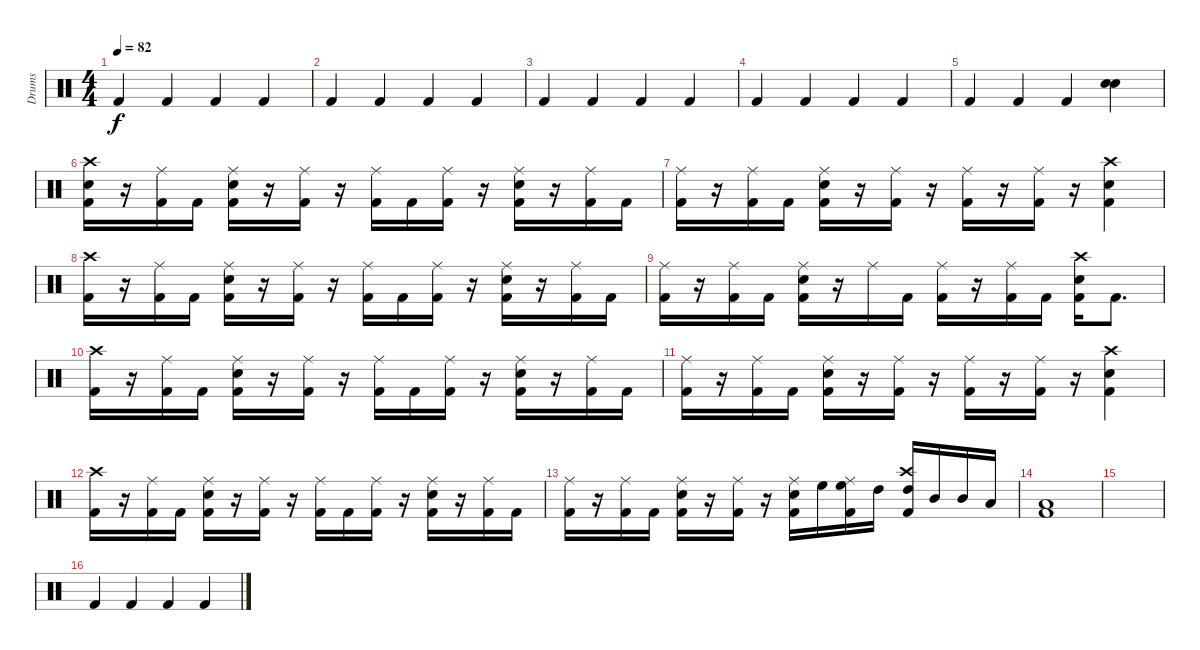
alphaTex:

\track ("Drums" "Drums") {instrument percussion}
\staff {score}
\articulation defaults
\ts (4 4)
\tempo 82
\clef neutral
\ks c "Kick (hit) 2".4{dy f} "Kick (hit) 2".4 "Kick (hit) 2".4 "Kick (hit) 2".4
|
"Kick (hit) 2".4 "Kick (hit) 2".4 "Kick (hit) 2".4 "Kick (hit) 2".4 |
"Kick (hit) 2".4 "Kick (hit) 2".4 "Kick (hit) 2".4 "Kick (hit) 2".4 |
"Kick (hit) 2".4 "Kick (hit) 2".4 "Kick (hit) 2".4 "Kick (hit) 2".4 |
"Kick (hit) 2".4 "Kick (hit) 2".4 "Kick (hit) 2".4 ("Snare (hit) 2" "Electric Snare (hit)").4 |
("Crash high (hit)" "Electric Snare (hit)" "Kick (hit) 2").16 r.16 ("Ride (middle)" "Kick (hit) 2").16 "Kick (hit) 2".16 ("Ride (middle)" "Electric Snare (hit)" "Kick (hit) 2").16 r.16 ("Ride (middle)" "Kick (hit) 2").16 r.16 ("Ride (middle)" "Kick (hit) 2").16 "Kick (hit) 2".16 ("Ride (middle)" "Kick (hit) 2").16 r.16 ("Ride (middle)" "Electric Snare (hit)" "Kick (hit) 2").16 r.16 ("Ride (middle)" "Kick (hit) 2").16 "Kick (hit) 2".16 |
("Ride (middle)" "Kick (hit) 2").16 r.16 ("Ride (middle)" "Kick (hit) 2").16 "Kick (hit) 2".16 ("Ride (middle)" "Electric Snare (hit)" "Kick (hit) 2").16 r.16 ("Ride (middle)" "Kick (hit) 2").16 r.16 ("Ride (middle)" "Kick (hit) 2").16 r.16 ("Ride (middle)" "Kick (hit) 2").16 r.16 ("Crash high (hit)" "Electric Snare (hit)" "Kick (hit) 2").4 |
("Crash high (hit)" "Kick (hit) 2").16 r.16 ("Ride (middle)" "Kick (hit) 2").16 "Kick (hit) 2".16 ("Ride (middle)" "Electric Snare (hit)" "Kick (hit) 2").16 r.16 ("Ride (middle)" "Kick (hit) 2").16 r.16 ("Ride (middle)" "Kick (hit) 2").16 "Kick (hit) 2".16 ("Ride (middle)" "Kick (hit) 2").16 r.16 ("Ride (middle)" "Electric Snare (hit)" "Kick (hit) 2").16 r.16 ("Ride (middle)" "Kick (hit) 2").16 "Kick (hit) 2".16 |
("Ride (middle)" "Kick (hit) 2").16 r.16 ("Ride (middle)" "Kick (hit) 2").16 "Kick (hit) 2".16 ("Ride (middle)" "Electric Snare (hit)" "Kick (hit) 2").16 r.16 "Ride (middle)".16 "Kick (hit) 2".16 ("Ride (middle)" "Kick (hit) 2").16 r.16 ("Ride (middle)" "Kick (hit) 2").16 "Kick (hit) 2".16 ("Crash high (hit)" "Electric Snare (hit)" "Kick (hit) 2").16 "Kick (hit) 2".8{d} |
("Crash high (hit)" "Kick (hit) 2").16 r.16 ("Ride (middle)" "Kick (hit) 2").16 "Kick (hit) 2".16 ("Ride (middle)" "Electric Snare (hit)" "Kick (hit) 2").16 r.16 ("Ride (middle)" "Kick (hit) 2").16 r.16 ("Ride (middle)" "Kick (hit) 2").16 "Kick (hit) 2".16 ("Ride (middle)" "Kick (hit) 2").16 r.16 ("Ride (middle)" "Electric Snare (hit)" "Kick (hit) 2").16 r.16 ("Ride (middle)" "Kick (hit) 2").16 "Kick (hit) 2".16 |
("Ride (middle)" "Kick (hit) 2").16 r.16 ("Ride (middle)" "Kick (hit) 2").16 "Kick (hit) 2".16 ("Ride (middle)" "Electric Snare (hit)" "Kick (hit) 2").16 r.16 ("Ride (middle)" "Kick (hit) 2").16 r.16 ("Ride (middle)" "Kick (hit) 2").16 r.16 ("Ride (middle)" "Kick (hit) 2").16 r.16 ("Crash high (hit)" "Electric Snare (hit)" "Kick (hit) 2").4 |
("Crash high (hit)" "Kick (hit) 2").16 r.16 ("Ride (middle)" "Kick (hit) 2").16 "Kick (hit) 2".16 ("Ride (middle)" "Electric Snare (hit)" "Kick (hit) 2").16 r.16 ("Ride (middle)" "Kick (hit) 2").16 r.16 ("Ride (middle)" "Kick (hit) 2").16 "Kick (hit) 2".16 ("Ride (middle)" "Kick (hit) 2").16 r.16 ("Ride (middle)" "Electric Snare (hit)" "Kick (hit) 2").16 r.16 ("Ride (middle)" "Kick (hit) 2").16 "Kick (hit) 2".16 |
("Ride (middle)" "Kick (hit) 2").16 r.16 ("Ride (middle)" "Kick (hit) 2").16 "Kick (hit) 2".16 ("Ride (middle)" "Electric Snare (hit)" "Kick (hit) 2").16 r.16 ("Ride (middle)" "Kick (hit) 2").16 r.16 ("Ride (middle)" "Electric Snare (hit)" "Kick (hit) 2").16 "High Floor Tom (hit)".16 ("Ride (middle)" "High Floor Tom (hit)" "Kick (hit) 2").16 "High Tom (hit)".16 ("Crash high (hit)" "High Tom (hit)" "Kick (hit) 2").16 "Mid Tom (hit)".16 "Mid Tom (hit)".16 "Low Tom (hit)".16 |
("Low Floor Tom (hit)" "Kick (hit) 2").1 |
|
"Kick (hit) 2".4 "Kick (hit) 2".4 "Kick (hit) 2".4 "Kick (hit) 2".4
